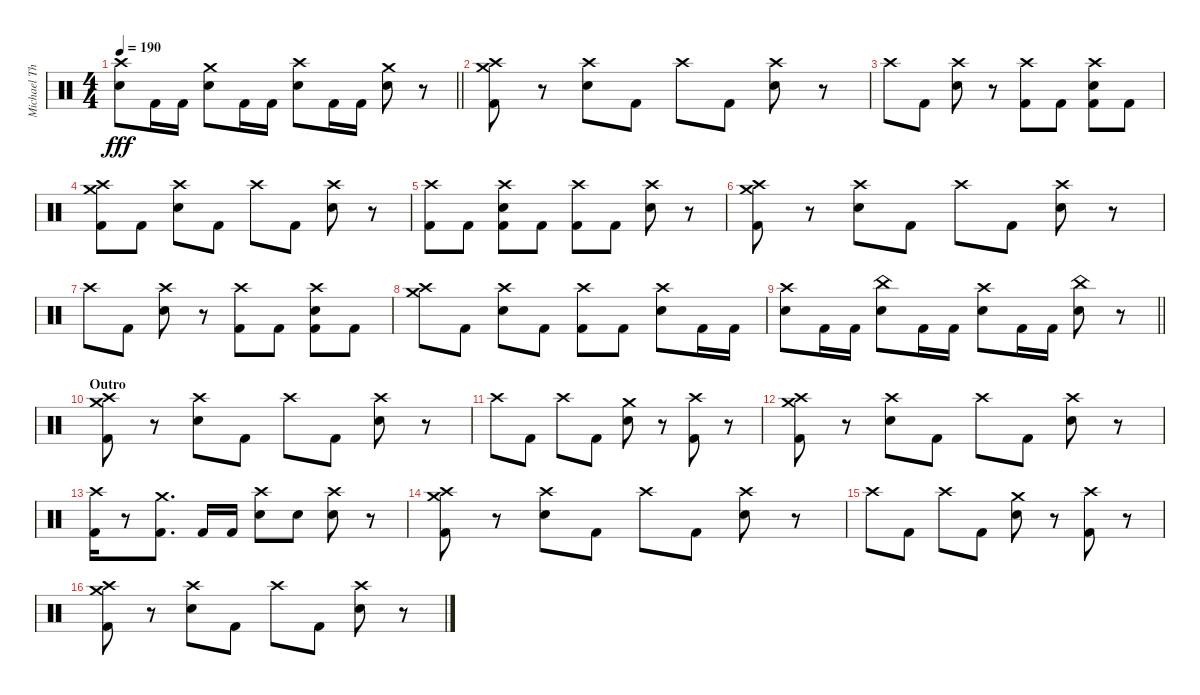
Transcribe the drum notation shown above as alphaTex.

\track ("Michael Thomas Жжёт!" "Michael Th") {instrument percussion}
\staff {score}
\articulation defaults
\ts (4 4)
\tempo 190
\clef neutral
\barLineRight lightlight
\ks c
("Crash high (hit)" "Electric Snare (hit)").8{dy fff} "Kick (hit) 2".16 "Kick (hit) 2".16 ("Crash medium (hit)" "Electric Snare (hit)").8 "Kick (hit) 2".16 "Kick (hit) 2".16 ("Crash high (hit)" "Electric Snare (hit)").8 "Kick (hit) 2".16 "Kick (hit) 2".16 ("Crash medium (hit)" "Electric Snare (hit)").8 r.8 |
("Crash high (hit)" "Crash medium (hit)" "Kick (hit) 2").8 r.8 ("Crash high (hit)" "Electric Snare (hit)").8 "Kick (hit) 2".8 "Crash high (hit)".8 "Kick (hit) 2".8 ("Crash high (hit)" "Electric Snare (hit)").8 r.8 |
"Crash high (hit)".8 "Kick (hit) 2".8 ("Crash high (hit)" "Electric Snare (hit)").8 r.8 ("Crash high (hit)" "Kick (hit) 2").8 "Kick (hit) 2".8 ("Crash high (hit)" "Electric Snare (hit)" "Kick (hit) 2").8 "Kick (hit) 2".8 |
("Crash high (hit)" "Crash medium (hit)" "Kick (hit) 2").8 "Kick (hit) 2".8 ("Crash high (hit)" "Electric Snare (hit)").8 "Kick (hit) 2".8 "Crash high (hit)".8 "Kick (hit) 2".8 ("Crash high (hit)" "Electric Snare (hit)").8 r.8 |
("Crash high (hit)" "Kick (hit) 2").8 "Kick (hit) 2".8 ("Crash high (hit)" "Electric Snare (hit)" "Kick (hit) 2").8 "Kick (hit) 2".8 ("Crash high (hit)" "Kick (hit) 2").8 "Kick (hit) 2".8 ("Crash high (hit)" "Electric Snare (hit)").8 r.8 |
("Crash high (hit)" "Crash medium (hit)" "Kick (hit) 2").8 r.8 ("Crash high (hit)" "Electric Snare (hit)").8 "Kick (hit) 2".8 "Crash high (hit)".8 "Kick (hit) 2".8 ("Crash high (hit)" "Electric Snare (hit)").8 r.8 |
"Crash high (hit)".8 "Kick (hit) 2".8 ("Crash high (hit)" "Electric Snare (hit)").8 r.8 ("Crash high (hit)" "Kick (hit) 2").8 "Kick (hit) 2".8 ("Crash high (hit)" "Electric Snare (hit)" "Kick (hit) 2").8 "Kick (hit) 2".8 |
("Crash high (hit)" "Crash medium (hit)").8 "Kick (hit) 2".8 ("Crash high (hit)" "Electric Snare (hit)").8 "Kick (hit) 2".8 ("Crash high (hit)" "Kick (hit) 2").8 "Kick (hit) 2".8 ("Crash high (hit)" "Electric Snare (hit)").8 "Kick (hit) 2".16 "Kick (hit) 2".16 |
\barLineRight lightlight
("Crash high (hit)" "Electric Snare (hit)").8 "Kick (hit) 2".16 "Kick (hit) 2".16 ("China (hit)" "Electric Snare (hit)").8 "Kick (hit) 2".16 "Kick (hit) 2".16 ("Crash high (hit)" "Electric Snare (hit)").8 "Kick (hit) 2".16 "Kick (hit) 2".16 ("China (hit)" "Electric Snare (hit)").8 r.8 |
\section ("" "Outro")
("Crash high (hit)" "Crash medium (hit)" "Kick (hit) 2").8 r.8 ("Crash high (hit)" "Electric Snare (hit)").8 "Kick (hit) 2".8 "Crash high (hit)".8 "Kick (hit) 2".8 ("Crash high (hit)" "Electric Snare (hit)").8 r.8 |
"Crash high (hit)".8 "Kick (hit) 2".8 "Crash high (hit)".8 "Kick (hit) 2".8 ("Crash medium (hit)" "Electric Snare (hit)").8 r.8 ("Crash high (hit)" "Kick (hit) 2").8 r.8 |
("Crash high (hit)" "Crash medium (hit)" "Kick (hit) 2").8 r.8 ("Crash high (hit)" "Electric Snare (hit)").8 "Kick (hit) 2".8 "Crash high (hit)".8 "Kick (hit) 2".8 ("Crash high (hit)" "Electric Snare (hit)").8 r.8 |
("Crash high (hit)" "Kick (hit) 2").16 r.8 ("Crash medium (hit)" "Kick (hit) 2").8{d} "Kick (hit) 2".16 "Kick (hit) 2".16 ("Crash high (hit)" "Electric Snare (hit)").8 "Electric Snare (hit)".8 ("Crash high (hit)" "Electric Snare (hit)").8 r.8 |
("Crash high (hit)" "Crash medium (hit)" "Kick (hit) 2").8 r.8 ("Crash high (hit)" "Electric Snare (hit)").8 "Kick (hit) 2".8 "Crash high (hit)".8 "Kick (hit) 2".8 ("Crash high (hit)" "Electric Snare (hit)").8 r.8 |
"Crash high (hit)".8 "Kick (hit) 2".8 "Crash high (hit)".8 "Kick (hit) 2".8 ("Crash medium (hit)" "Electric Snare (hit)").8 r.8 ("Crash high (hit)" "Kick (hit) 2").8 r.8 |
("Crash high (hit)" "Crash medium (hit)" "Kick (hit) 2").8 r.8 ("Crash high (hit)" "Electric Snare (hit)").8 "Kick (hit) 2".8 "Crash high (hit)".8 "Kick (hit) 2".8 ("Crash high (hit)" "Electric Snare (hit)").8 r.8
